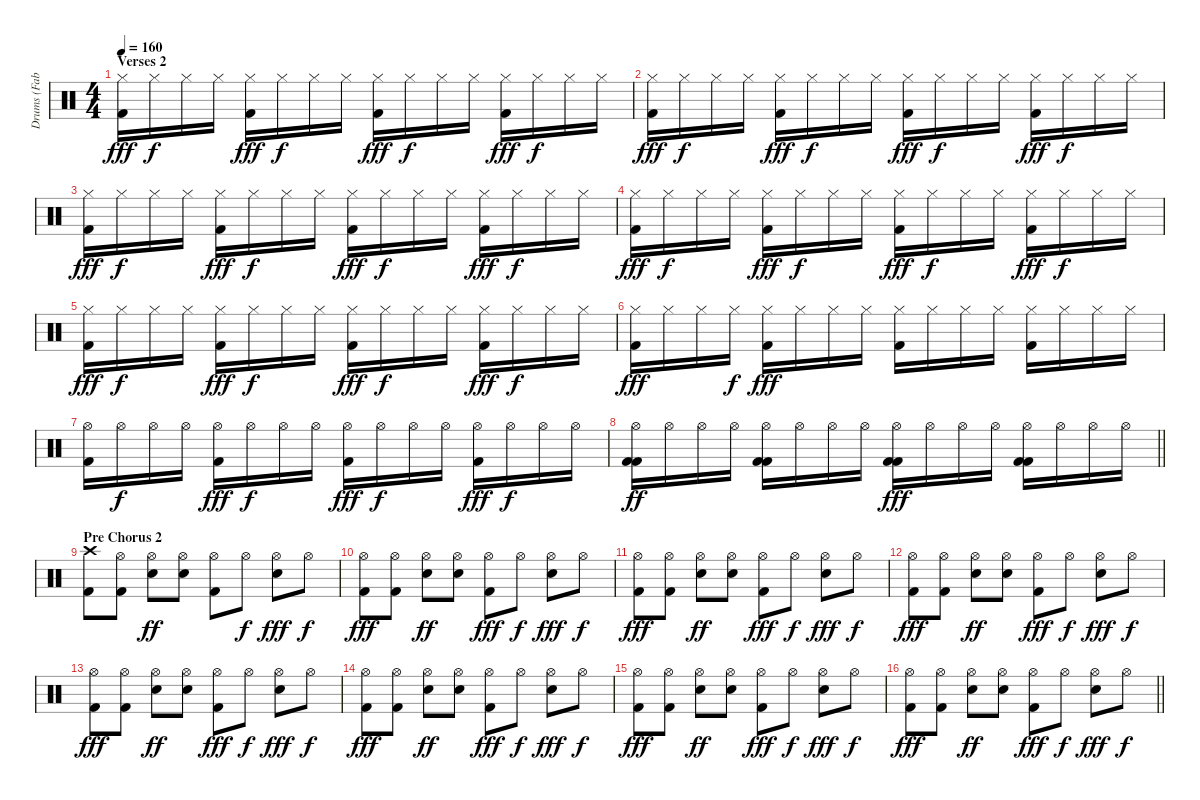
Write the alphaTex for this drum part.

\track ("Drums (Fabrizio Moretti)" "Drums (Fab") {instrument percussion}
\staff {score}
\articulation defaults
\ts (4 4)
\section ("" "Verses 2")
\tempo 160
\clef neutral
\ks c
("Kick (hit) 2" "Hi-Hat (closed)").16{dy fff} "Hi-Hat (closed)".16{dy f} "Hi-Hat (closed)".16 "Hi-Hat (closed)".16 ("Kick (hit) 2" "Hi-Hat (closed)").16{dy fff} "Hi-Hat (closed)".16{dy f} "Hi-Hat (closed)".16 "Hi-Hat (closed)".16 ("Kick (hit) 2" "Hi-Hat (closed)").16{dy fff} "Hi-Hat (closed)".16{dy f} "Hi-Hat (closed)".16 "Hi-Hat (closed)".16 ("Kick (hit) 2" "Hi-Hat (closed)").16{dy fff} "Hi-Hat (closed)".16{dy f} "Hi-Hat (closed)".16 "Hi-Hat (closed)".16 |
("Kick (hit) 2" "Hi-Hat (closed)").16{dy fff} "Hi-Hat (closed)".16{dy f} "Hi-Hat (closed)".16 "Hi-Hat (closed)".16 ("Kick (hit) 2" "Hi-Hat (closed)").16{dy fff} "Hi-Hat (closed)".16{dy f} "Hi-Hat (closed)".16 "Hi-Hat (closed)".16 ("Kick (hit) 2" "Hi-Hat (closed)").16{dy fff} "Hi-Hat (closed)".16{dy f} "Hi-Hat (closed)".16 "Hi-Hat (closed)".16 ("Kick (hit) 2" "Hi-Hat (closed)").16{dy fff} "Hi-Hat (closed)".16{dy f} "Hi-Hat (closed)".16 "Hi-Hat (closed)".16 |
("Kick (hit) 2" "Hi-Hat (closed)").16{dy fff} "Hi-Hat (closed)".16{dy f} "Hi-Hat (closed)".16 "Hi-Hat (closed)".16 ("Kick (hit) 2" "Hi-Hat (closed)").16{dy fff} "Hi-Hat (closed)".16{dy f} "Hi-Hat (closed)".16 "Hi-Hat (closed)".16 ("Kick (hit) 2" "Hi-Hat (closed)").16{dy fff} "Hi-Hat (closed)".16{dy f} "Hi-Hat (closed)".16 "Hi-Hat (closed)".16 ("Kick (hit) 2" "Hi-Hat (closed)").16{dy fff} "Hi-Hat (closed)".16{dy f} "Hi-Hat (closed)".16 "Hi-Hat (closed)".16 |
("Kick (hit) 2" "Hi-Hat (closed)").16{dy fff} "Hi-Hat (closed)".16{dy f} "Hi-Hat (closed)".16 "Hi-Hat (closed)".16 ("Kick (hit) 2" "Hi-Hat (closed)").16{dy fff} "Hi-Hat (closed)".16{dy f} "Hi-Hat (closed)".16 "Hi-Hat (closed)".16 ("Kick (hit) 2" "Hi-Hat (closed)").16{dy fff} "Hi-Hat (closed)".16{dy f} "Hi-Hat (closed)".16 "Hi-Hat (closed)".16 ("Kick (hit) 2" "Hi-Hat (closed)").16{dy fff} "Hi-Hat (closed)".16{dy f} "Hi-Hat (closed)".16 "Hi-Hat (closed)".16 |
("Kick (hit) 2" "Hi-Hat (closed)").16{dy fff} "Hi-Hat (closed)".16{dy f} "Hi-Hat (closed)".16 "Hi-Hat (closed)".16 ("Kick (hit) 2" "Hi-Hat (closed)").16{dy fff} "Hi-Hat (closed)".16{dy f} "Hi-Hat (closed)".16 "Hi-Hat (closed)".16 ("Kick (hit) 2" "Hi-Hat (closed)").16{dy fff} "Hi-Hat (closed)".16{dy f} "Hi-Hat (closed)".16 "Hi-Hat (closed)".16 ("Kick (hit) 2" "Hi-Hat (closed)").16{dy fff} "Hi-Hat (closed)".16{dy f} "Hi-Hat (closed)".16 "Hi-Hat (closed)".16 |
("Kick (hit) 2" "Hi-Hat (closed)").16{dy fff} "Hi-Hat (closed)".16 "Hi-Hat (closed)".16 "Hi-Hat (closed)".16{dy f} ("Kick (hit) 2" "Hi-Hat (closed)").16{dy fff} "Hi-Hat (closed)".16 "Hi-Hat (closed)".16 "Hi-Hat (closed)".16 ("Kick (hit) 2" "Hi-Hat (closed)").16 "Hi-Hat (closed)".16 "Hi-Hat (closed)".16 "Hi-Hat (closed)".16 ("Kick (hit) 2" "Hi-Hat (closed)").16 "Hi-Hat (closed)".16 "Hi-Hat (closed)".16 "Hi-Hat (closed)".16 |
("Kick (hit) 2" "Hi-Hat (open)").16 "Hi-Hat (open)".16{dy f} "Hi-Hat (open)".16 "Hi-Hat (open)".16 ("Kick (hit) 2" "Hi-Hat (open)").16{dy fff} "Hi-Hat (open)".16{dy f} "Hi-Hat (open)".16 "Hi-Hat (open)".16 ("Kick (hit) 2" "Hi-Hat (open)").16{dy fff} "Hi-Hat (open)".16{dy f} "Hi-Hat (open)".16 "Hi-Hat (open)".16 ("Kick (hit) 2" "Hi-Hat (open)").16{dy fff} "Hi-Hat (open)".16{dy f} "Hi-Hat (open)".16 "Hi-Hat (open)".16 |
\barLineRight lightlight
("Kick (hit) 2" "Kick (hit) 2" "Hi-Hat (open)").16{dy ff} "Hi-Hat (open)".16 "Hi-Hat (open)".16 "Hi-Hat (open)".16 ("Kick (hit) 2" "Kick (hit) 2" "Hi-Hat (open)").16 "Hi-Hat (open)".16 "Hi-Hat (open)".16 "Hi-Hat (open)".16 ("Kick (hit) 2" "Kick (hit) 2" "Hi-Hat (open)").16{dy fff} "Hi-Hat (open)".16 "Hi-Hat (open)".16 "Hi-Hat (open)".16 ("Kick (hit) 2" "Kick (hit) 2" "Hi-Hat (open)").16 "Hi-Hat (open)".16 "Hi-Hat (open)".16 "Hi-Hat (open)".16 |
\section ("" "Pre Chorus 2")
("Kick (hit) 2" "Crash high (hit)").8 ("Kick (hit) 2" "Hi-Hat (open)").8 ("Electric Snare (hit)" "Hi-Hat (open)").8{dy ff} ("Electric Snare (hit)" "Hi-Hat (open)").8 ("Kick (hit) 2" "Hi-Hat (open)").8 "Hi-Hat (open)".8{dy f} ("Electric Snare (hit)" "Hi-Hat (open)").8{dy fff} "Hi-Hat (open)".8{dy f} |
("Kick (hit) 2" "Hi-Hat (open)").8{dy fff} ("Kick (hit) 2" "Hi-Hat (open)").8 ("Electric Snare (hit)" "Hi-Hat (open)").8{dy ff} ("Electric Snare (hit)" "Hi-Hat (open)").8 ("Kick (hit) 2" "Hi-Hat (open)").8{dy fff} "Hi-Hat (open)".8{dy f} ("Electric Snare (hit)" "Hi-Hat (open)").8{dy fff} "Hi-Hat (open)".8{dy f} |
("Kick (hit) 2" "Hi-Hat (open)").8{dy fff} ("Kick (hit) 2" "Hi-Hat (open)").8 ("Electric Snare (hit)" "Hi-Hat (open)").8{dy ff} ("Electric Snare (hit)" "Hi-Hat (open)").8 ("Kick (hit) 2" "Hi-Hat (open)").8{dy fff} "Hi-Hat (open)".8{dy f} ("Electric Snare (hit)" "Hi-Hat (open)").8{dy fff} "Hi-Hat (open)".8{dy f} |
("Kick (hit) 2" "Hi-Hat (open)").8{dy fff} ("Kick (hit) 2" "Hi-Hat (open)").8 ("Electric Snare (hit)" "Hi-Hat (open)").8{dy ff} ("Electric Snare (hit)" "Hi-Hat (open)").8 ("Kick (hit) 2" "Hi-Hat (open)").8{dy fff} "Hi-Hat (open)".8{dy f} ("Electric Snare (hit)" "Hi-Hat (open)").8{dy fff} "Hi-Hat (open)".8{dy f} |
("Kick (hit) 2" "Hi-Hat (open)").8{dy fff} ("Kick (hit) 2" "Hi-Hat (open)").8 ("Electric Snare (hit)" "Hi-Hat (open)").8{dy ff} ("Electric Snare (hit)" "Hi-Hat (open)").8 ("Kick (hit) 2" "Hi-Hat (open)").8{dy fff} "Hi-Hat (open)".8{dy f} ("Electric Snare (hit)" "Hi-Hat (open)").8{dy fff} "Hi-Hat (open)".8{dy f} |
("Kick (hit) 2" "Hi-Hat (open)").8{dy fff} ("Kick (hit) 2" "Hi-Hat (open)").8 ("Electric Snare (hit)" "Hi-Hat (open)").8{dy ff} ("Electric Snare (hit)" "Hi-Hat (open)").8 ("Kick (hit) 2" "Hi-Hat (open)").8{dy fff} "Hi-Hat (open)".8{dy f} ("Electric Snare (hit)" "Hi-Hat (open)").8{dy fff} "Hi-Hat (open)".8{dy f} |
("Kick (hit) 2" "Hi-Hat (open)").8{dy fff} ("Kick (hit) 2" "Hi-Hat (open)").8 ("Electric Snare (hit)" "Hi-Hat (open)").8{dy ff} ("Electric Snare (hit)" "Hi-Hat (open)").8 ("Kick (hit) 2" "Hi-Hat (open)").8{dy fff} "Hi-Hat (open)".8{dy f} ("Electric Snare (hit)" "Hi-Hat (open)").8{dy fff} "Hi-Hat (open)".8{dy f} |
\barLineRight lightlight
("Kick (hit) 2" "Hi-Hat (open)").8{dy fff} ("Kick (hit) 2" "Hi-Hat (open)").8 ("Electric Snare (hit)" "Hi-Hat (open)").8{dy ff} ("Electric Snare (hit)" "Hi-Hat (open)").8 ("Kick (hit) 2" "Hi-Hat (open)").8{dy fff} "Hi-Hat (open)".8{dy f} ("Electric Snare (hit)" "Hi-Hat (open)").8{dy fff} "Hi-Hat (open)".8{dy f}
